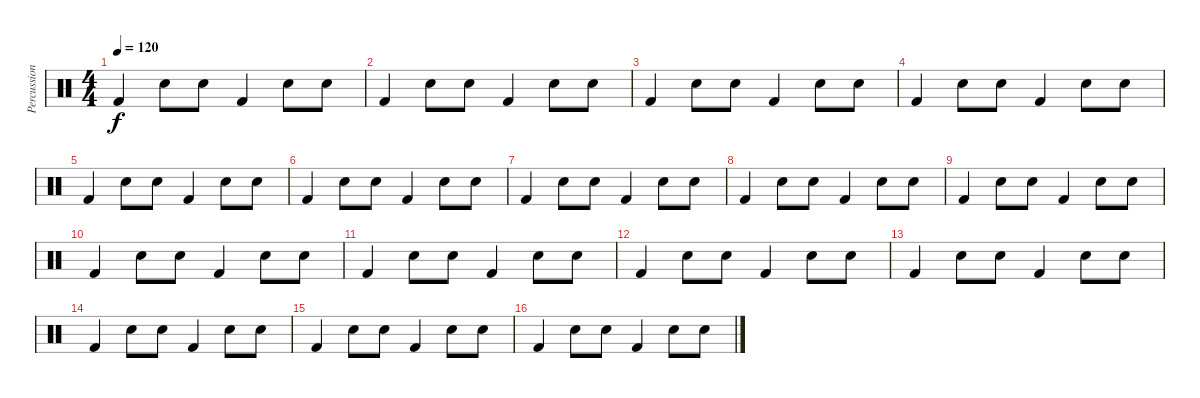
\track ("Percussion" "Percussion") {instrument percussion}
\staff {score}
\articulation defaults
\ts (4 4)
\tempo 120
\clef neutral
\ks c "Kick (hit) 2".4{dy f} "Snare (hit) 2".8 "Snare (hit) 2".8 "Kick (hit) 2".4 "Snare (hit) 2".8 "Snare (hit) 2".8
|
"Kick (hit) 2".4 "Snare (hit) 2".8 "Snare (hit) 2".8 "Kick (hit) 2".4 "Snare (hit) 2".8 "Snare (hit) 2".8 |
"Kick (hit) 2".4 "Snare (hit) 2".8 "Snare (hit) 2".8 "Kick (hit) 2".4 "Snare (hit) 2".8 "Snare (hit) 2".8 |
"Kick (hit) 2".4 "Snare (hit) 2".8 "Snare (hit) 2".8 "Kick (hit) 2".4 "Snare (hit) 2".8 "Snare (hit) 2".8 |
"Kick (hit) 2".4 "Snare (hit) 2".8 "Snare (hit) 2".8 "Kick (hit) 2".4 "Snare (hit) 2".8 "Snare (hit) 2".8 |
"Kick (hit) 2".4 "Snare (hit) 2".8 "Snare (hit) 2".8 "Kick (hit) 2".4 "Snare (hit) 2".8 "Snare (hit) 2".8 |
"Kick (hit) 2".4 "Snare (hit) 2".8 "Snare (hit) 2".8 "Kick (hit) 2".4 "Snare (hit) 2".8 "Snare (hit) 2".8 |
"Kick (hit) 2".4 "Snare (hit) 2".8 "Snare (hit) 2".8 "Kick (hit) 2".4 "Snare (hit) 2".8 "Snare (hit) 2".8 |
"Kick (hit) 2".4 "Snare (hit) 2".8 "Snare (hit) 2".8 "Kick (hit) 2".4 "Snare (hit) 2".8 "Snare (hit) 2".8 |
"Kick (hit) 2".4 "Snare (hit) 2".8 "Snare (hit) 2".8 "Kick (hit) 2".4 "Snare (hit) 2".8 "Snare (hit) 2".8 |
"Kick (hit) 2".4 "Snare (hit) 2".8 "Snare (hit) 2".8 "Kick (hit) 2".4 "Snare (hit) 2".8 "Snare (hit) 2".8 |
"Kick (hit) 2".4 "Snare (hit) 2".8 "Snare (hit) 2".8 "Kick (hit) 2".4 "Snare (hit) 2".8 "Snare (hit) 2".8 |
"Kick (hit) 2".4 "Snare (hit) 2".8 "Snare (hit) 2".8 "Kick (hit) 2".4 "Snare (hit) 2".8 "Snare (hit) 2".8 |
"Kick (hit) 2".4 "Snare (hit) 2".8 "Snare (hit) 2".8 "Kick (hit) 2".4 "Snare (hit) 2".8 "Snare (hit) 2".8 |
"Kick (hit) 2".4 "Snare (hit) 2".8 "Snare (hit) 2".8 "Kick (hit) 2".4 "Snare (hit) 2".8 "Snare (hit) 2".8 |
"Kick (hit) 2".4 "Snare (hit) 2".8 "Snare (hit) 2".8 "Kick (hit) 2".4 "Snare (hit) 2".8 "Snare (hit) 2".8
